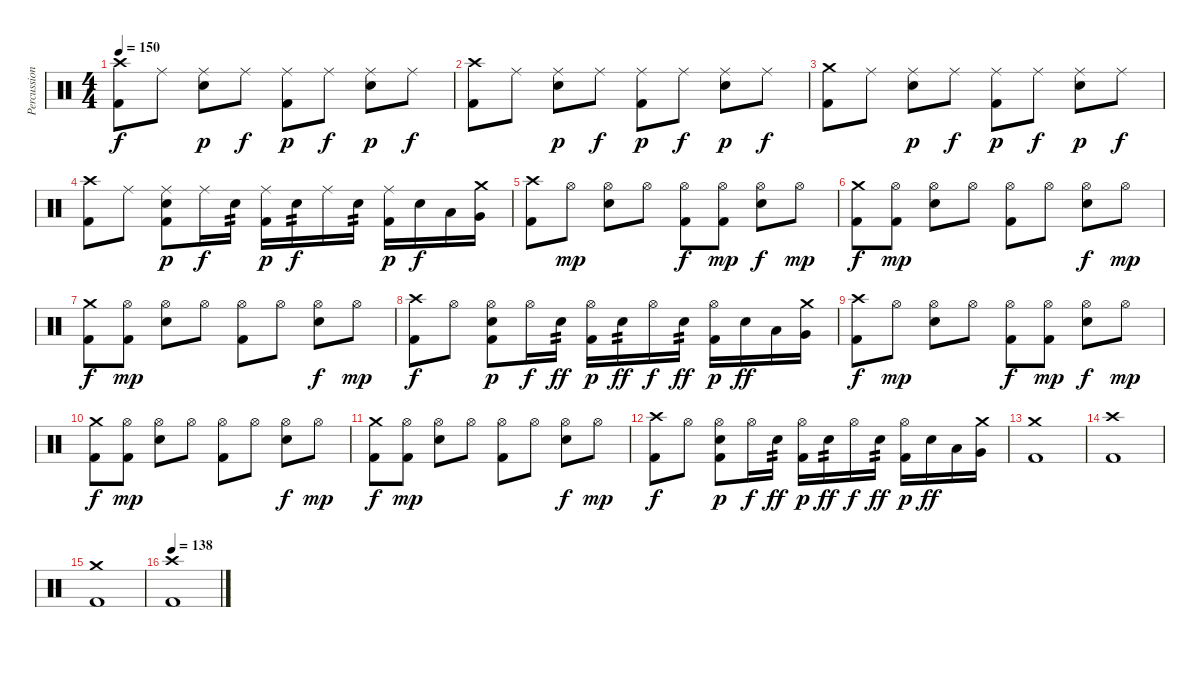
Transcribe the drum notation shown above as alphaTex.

\track ("Percussion" "Percussion") {instrument percussion}
\staff {score}
\articulation defaults
\ts (4 4)
\tempo 150
\clef neutral
\ks c
("Crash high (hit)" "Kick (hit) 2").8{dy f} "Ride (middle)".8 ("Ride (middle)" "Electric Snare (hit)").8{dy p} "Ride (middle)".8{dy f} ("Ride (middle)" "Kick (hit) 2").8{dy p} "Ride (middle)".8{dy f} ("Ride (middle)" "Electric Snare (hit)").8{dy p} "Ride (middle)".8{dy f} |
("Crash high (hit)" "Kick (hit) 2").8 "Ride (middle)".8 ("Ride (middle)" "Electric Snare (hit)").8{dy p} "Ride (middle)".8{dy f} ("Ride (middle)" "Kick (hit) 2").8{dy p} "Ride (middle)".8{dy f} ("Ride (middle)" "Electric Snare (hit)").8{dy p} "Ride (middle)".8{dy f} |
("Crash medium (hit)" "Kick (hit) 2").8 "Ride (middle)".8 ("Ride (middle)" "Electric Snare (hit)").8{dy p} "Ride (middle)".8{dy f} ("Ride (middle)" "Kick (hit) 2").8{dy p} "Ride (middle)".8{dy f} ("Ride (middle)" "Electric Snare (hit)").8{dy p} "Ride (middle)".8{dy f} |
("Crash high (hit)" "Kick (hit) 2").8 "Ride (middle)".8 ("Ride (middle)" "Electric Snare (hit)" "Kick (hit) 2").8{dy p} "Ride (middle)".16{dy f} "Electric Snare (hit)".16{tp 2} ("Ride (middle)" "Kick (hit) 2").16{dy p} "Electric Snare (hit)".16{tp 2 dy f} "Ride (middle)".16 "Electric Snare (hit)".16{tp 2} ("Ride (middle)" "Kick (hit) 2").16{dy p} "Electric Snare (hit)".16{dy f} "Low Tom (hit)".16 ("Crash medium (hit)" "Very Low Tom (hit)").16 |
("Crash high (hit)" "Kick (hit) 2").8 "Hi-Hat (open)".8{dy mp} ("Snare (hit) 2" "Hi-Hat (open)").8 "Hi-Hat (open)".8 ("Hi-Hat (open)" "Kick (hit) 2").8{dy f} ("Hi-Hat (open)" "Kick (hit) 2").8{dy mp} ("Hi-Hat (open)" "Electric Snare (hit)").8{dy f} "Hi-Hat (open)".8{dy mp} |
("Crash medium (hit)" "Kick (hit) 2").8{dy f} ("Hi-Hat (open)" "Kick (hit) 2").8{dy mp} ("Snare (hit) 2" "Hi-Hat (open)").8 "Hi-Hat (open)".8 ("Hi-Hat (open)" "Kick (hit) 2").8 "Hi-Hat (open)".8 ("Hi-Hat (open)" "Electric Snare (hit)").8{dy f} "Hi-Hat (open)".8{dy mp} |
("Crash medium (hit)" "Kick (hit) 2").8{dy f} ("Hi-Hat (open)" "Kick (hit) 2").8{dy mp} ("Snare (hit) 2" "Hi-Hat (open)").8 "Hi-Hat (open)".8 ("Hi-Hat (open)" "Kick (hit) 2").8 "Hi-Hat (open)".8 ("Hi-Hat (open)" "Electric Snare (hit)").8{dy f} "Hi-Hat (open)".8{dy mp} |
("Crash high (hit)" "Kick (hit) 2").8{dy f} "Hi-Hat (open)".8 ("Hi-Hat (open)" "Electric Snare (hit)" "Kick (hit) 2").8{dy p} "Hi-Hat (open)".16{dy f} "Electric Snare (hit)".16{tp 2 dy ff} ("Hi-Hat (open)" "Kick (hit) 2").16{dy p} "Electric Snare (hit)".16{tp 2 dy ff} "Hi-Hat (open)".16{dy f} "Electric Snare (hit)".16{tp 2 dy ff} ("Hi-Hat (open)" "Kick (hit) 2").16{dy p} "Electric Snare (hit)".16{dy ff} "Low Tom (hit)".16 ("Crash medium (hit)" "Very Low Tom (hit)").16 |
("Crash high (hit)" "Kick (hit) 2").8{dy f} "Hi-Hat (open)".8{dy mp} ("Snare (hit) 2" "Hi-Hat (open)").8 "Hi-Hat (open)".8 ("Hi-Hat (open)" "Kick (hit) 2").8{dy f} ("Hi-Hat (open)" "Kick (hit) 2").8{dy mp} ("Hi-Hat (open)" "Electric Snare (hit)").8{dy f} "Hi-Hat (open)".8{dy mp} |
("Crash medium (hit)" "Kick (hit) 2").8{dy f} ("Hi-Hat (open)" "Kick (hit) 2").8{dy mp} ("Snare (hit) 2" "Hi-Hat (open)").8 "Hi-Hat (open)".8 ("Hi-Hat (open)" "Kick (hit) 2").8 "Hi-Hat (open)".8 ("Hi-Hat (open)" "Electric Snare (hit)").8{dy f} "Hi-Hat (open)".8{dy mp} |
("Crash medium (hit)" "Kick (hit) 2").8{dy f} ("Hi-Hat (open)" "Kick (hit) 2").8{dy mp} ("Snare (hit) 2" "Hi-Hat (open)").8 "Hi-Hat (open)".8 ("Hi-Hat (open)" "Kick (hit) 2").8 "Hi-Hat (open)".8 ("Hi-Hat (open)" "Electric Snare (hit)").8{dy f} "Hi-Hat (open)".8{dy mp} |
("Crash high (hit)" "Kick (hit) 2").8{dy f} "Hi-Hat (open)".8 ("Hi-Hat (open)" "Electric Snare (hit)" "Kick (hit) 2").8{dy p} "Hi-Hat (open)".16{dy f} "Electric Snare (hit)".16{tp 2 dy ff} ("Hi-Hat (open)" "Kick (hit) 2").16{dy p} "Electric Snare (hit)".16{tp 2 dy ff} "Hi-Hat (open)".16{dy f} "Electric Snare (hit)".16{tp 2 dy ff} ("Hi-Hat (open)" "Kick (hit) 2").16{dy p} "Electric Snare (hit)".16{dy ff} "Low Tom (hit)".16 ("Crash medium (hit)" "Very Low Tom (hit)").16 |
("Crash medium (hit)" "Kick (hit) 2").1 |
("Crash high (hit)" "Kick (hit) 2").1 |
("Crash medium (hit)" "Kick (hit) 2").1 |
\tempo 138
("Crash high (hit)" "Kick (hit) 2").1
